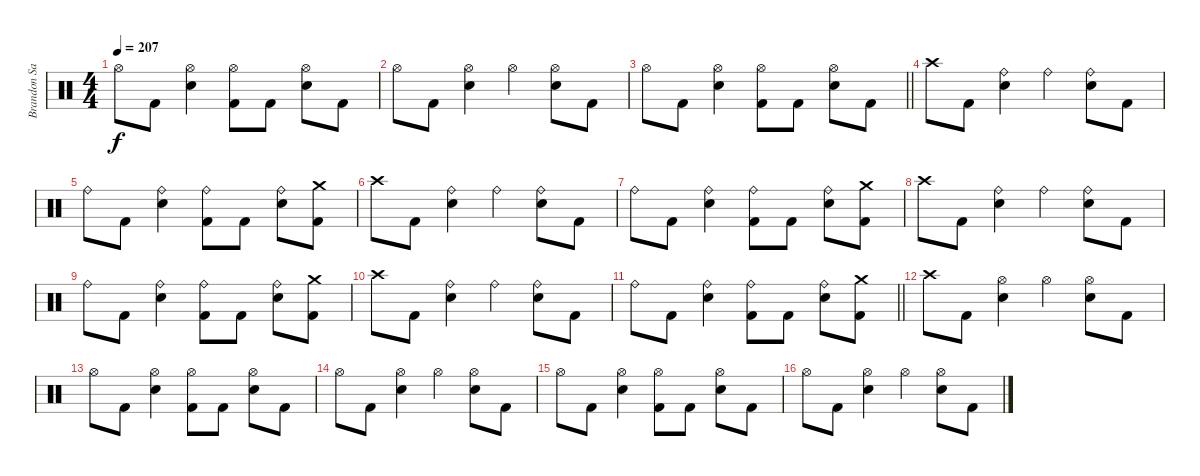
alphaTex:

\track ("Brandon Saller" "Brandon Sa") {instrument percussion}
\staff {score}
\articulation defaults
\ts (4 4)
\tempo 207
\clef neutral
\ks c "Hi-Hat (open)".8{dy f} "Kick (hit) 2".8
("Hi-Hat (open)" "Electric Snare (hit)").4 ("Hi-Hat (open)" "Kick (hit) 2").8 "Kick (hit) 2".8 ("Hi-Hat (open)" "Electric Snare (hit)").8 "Kick (hit) 2".8 |
"Hi-Hat (open)".8 "Kick (hit) 2".8 ("Hi-Hat (open)" "Electric Snare (hit)").4 "Hi-Hat (open)".4 ("Hi-Hat (open)" "Electric Snare (hit)").8 "Kick (hit) 2".8 |
\barLineRight lightlight "Hi-Hat (open)".8 "Kick (hit) 2".8
("Hi-Hat (open)" "Electric Snare (hit)").4 ("Hi-Hat (open)" "Kick (hit) 2").8 "Kick (hit) 2".8 ("Hi-Hat (open)" "Electric Snare (hit)").8 "Kick (hit) 2".8 |
"Crash high (hit)".8 "Kick (hit) 2".8 ("Ride (bell)" "Electric Snare (hit)").4 "Ride (bell)".4 ("Ride (bell)" "Electric Snare (hit)").8 "Kick (hit) 2".8 |
"Ride (bell)".8 "Kick (hit) 2".8 ("Ride (bell)" "Electric Snare (hit)").4 ("Ride (bell)" "Kick (hit) 2").8 "Kick (hit) 2".8 ("Ride (bell)" "Electric Snare (hit)").8 ("Crash medium (hit)" "Kick (hit) 2").8 |
"Crash high (hit)".8 "Kick (hit) 2".8 ("Ride (bell)" "Electric Snare (hit)").4 "Ride (bell)".4 ("Ride (bell)" "Electric Snare (hit)").8 "Kick (hit) 2".8 |
"Ride (bell)".8 "Kick (hit) 2".8 ("Ride (bell)" "Electric Snare (hit)").4 ("Ride (bell)" "Kick (hit) 2").8 "Kick (hit) 2".8 ("Ride (bell)" "Electric Snare (hit)").8 ("Crash medium (hit)" "Kick (hit) 2").8 |
"Crash high (hit)".8 "Kick (hit) 2".8 ("Ride (bell)" "Electric Snare (hit)").4 "Ride (bell)".4 ("Ride (bell)" "Electric Snare (hit)").8 "Kick (hit) 2".8 |
"Ride (bell)".8 "Kick (hit) 2".8 ("Ride (bell)" "Electric Snare (hit)").4 ("Ride (bell)" "Kick (hit) 2").8 "Kick (hit) 2".8 ("Ride (bell)" "Electric Snare (hit)").8 ("Crash medium (hit)" "Kick (hit) 2").8 |
"Crash high (hit)".8 "Kick (hit) 2".8 ("Ride (bell)" "Electric Snare (hit)").4 "Ride (bell)".4 ("Ride (bell)" "Electric Snare (hit)").8 "Kick (hit) 2".8 |
\barLineRight lightlight "Ride (bell)".8 "Kick (hit) 2".8
("Ride (bell)" "Electric Snare (hit)").4 ("Ride (bell)" "Kick (hit) 2").8 "Kick (hit) 2".8 ("Ride (bell)" "Electric Snare (hit)").8 ("Crash medium (hit)" "Kick (hit) 2").8 |
"Crash high (hit)".8 "Kick (hit) 2".8 ("Hi-Hat (open)" "Electric Snare (hit)").4 "Hi-Hat (open)".4 ("Hi-Hat (open)" "Electric Snare (hit)").8 "Kick (hit) 2".8 |
"Hi-Hat (open)".8 "Kick (hit) 2".8 ("Hi-Hat (open)" "Electric Snare (hit)").4 ("Hi-Hat (open)" "Kick (hit) 2").8 "Kick (hit) 2".8 ("Hi-Hat (open)" "Electric Snare (hit)").8 "Kick (hit) 2".8 |
"Hi-Hat (open)".8 "Kick (hit) 2".8 ("Hi-Hat (open)" "Electric Snare (hit)").4 "Hi-Hat (open)".4 ("Hi-Hat (open)" "Electric Snare (hit)").8 "Kick (hit) 2".8 |
"Hi-Hat (open)".8 "Kick (hit) 2".8 ("Hi-Hat (open)" "Electric Snare (hit)").4 ("Hi-Hat (open)" "Kick (hit) 2").8 "Kick (hit) 2".8 ("Hi-Hat (open)" "Electric Snare (hit)").8 "Kick (hit) 2".8 |
"Hi-Hat (open)".8 "Kick (hit) 2".8 ("Hi-Hat (open)" "Electric Snare (hit)").4 "Hi-Hat (open)".4 ("Hi-Hat (open)" "Electric Snare (hit)").8 "Kick (hit) 2".8
